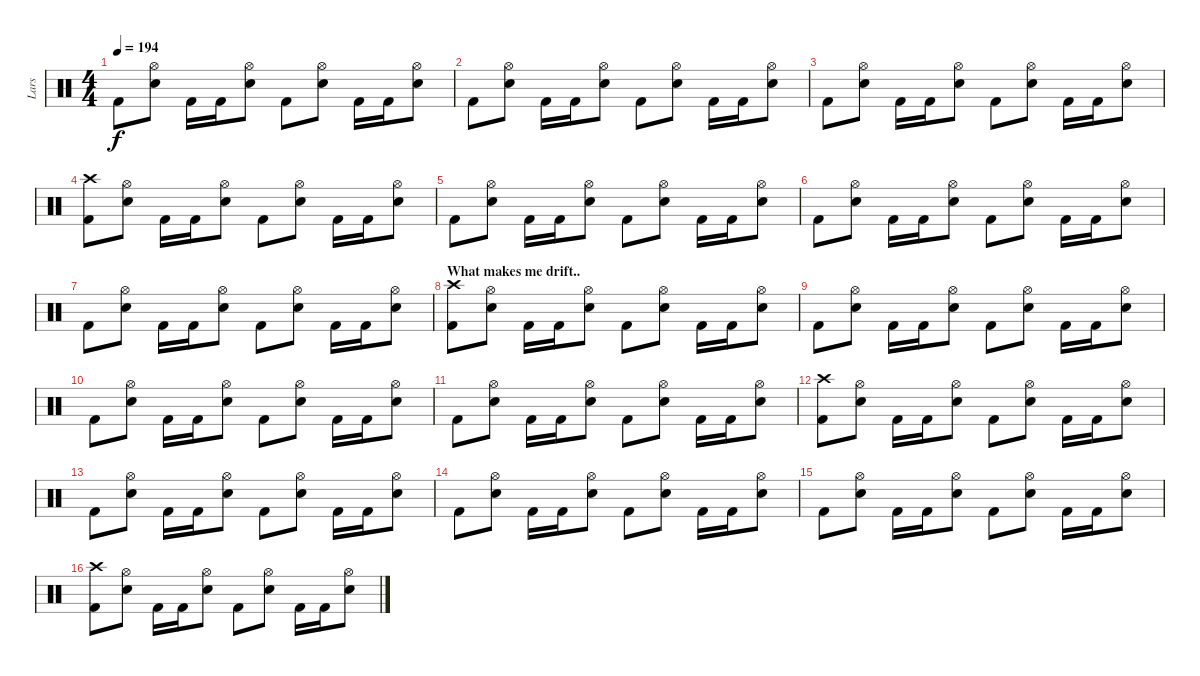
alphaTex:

\track ("Lars" "Lars") {instrument percussion}
\staff {score}
\articulation defaults
\ts (4 4)
\tempo 194
\clef neutral
\ks c "Kick (hit) 2".8{dy f}
("Electric Snare (hit)" "Hi-Hat (open)").8 "Kick (hit) 2".16 "Kick (hit) 2".16 ("Electric Snare (hit)" "Hi-Hat (open)").8 "Kick (hit) 2".8 ("Electric Snare (hit)" "Hi-Hat (open)").8 "Kick (hit) 2".16 "Kick (hit) 2".16 ("Electric Snare (hit)" "Hi-Hat (open)").8 |
"Kick (hit) 2".8 ("Electric Snare (hit)" "Hi-Hat (open)").8 "Kick (hit) 2".16 "Kick (hit) 2".16 ("Electric Snare (hit)" "Hi-Hat (open)").8 "Kick (hit) 2".8 ("Electric Snare (hit)" "Hi-Hat (open)").8 "Kick (hit) 2".16 "Kick (hit) 2".16 ("Electric Snare (hit)" "Hi-Hat (open)").8 |
"Kick (hit) 2".8 ("Electric Snare (hit)" "Hi-Hat (open)").8 "Kick (hit) 2".16 "Kick (hit) 2".16 ("Electric Snare (hit)" "Hi-Hat (open)").8 "Kick (hit) 2".8 ("Electric Snare (hit)" "Hi-Hat (open)").8 "Kick (hit) 2".16 "Kick (hit) 2".16 ("Electric Snare (hit)" "Hi-Hat (open)").8 |
("Kick (hit) 2" "Crash high (hit)").8 ("Electric Snare (hit)" "Hi-Hat (open)").8 "Kick (hit) 2".16 "Kick (hit) 2".16 ("Electric Snare (hit)" "Hi-Hat (open)").8 "Kick (hit) 2".8 ("Electric Snare (hit)" "Hi-Hat (open)").8 "Kick (hit) 2".16 "Kick (hit) 2".16 ("Electric Snare (hit)" "Hi-Hat (open)").8 |
"Kick (hit) 2".8 ("Electric Snare (hit)" "Hi-Hat (open)").8 "Kick (hit) 2".16 "Kick (hit) 2".16 ("Electric Snare (hit)" "Hi-Hat (open)").8 "Kick (hit) 2".8 ("Electric Snare (hit)" "Hi-Hat (open)").8 "Kick (hit) 2".16 "Kick (hit) 2".16 ("Electric Snare (hit)" "Hi-Hat (open)").8 |
"Kick (hit) 2".8 ("Electric Snare (hit)" "Hi-Hat (open)").8 "Kick (hit) 2".16 "Kick (hit) 2".16 ("Electric Snare (hit)" "Hi-Hat (open)").8 "Kick (hit) 2".8 ("Electric Snare (hit)" "Hi-Hat (open)").8 "Kick (hit) 2".16 "Kick (hit) 2".16 ("Electric Snare (hit)" "Hi-Hat (open)").8 |
"Kick (hit) 2".8 ("Electric Snare (hit)" "Hi-Hat (open)").8 "Kick (hit) 2".16 "Kick (hit) 2".16 ("Electric Snare (hit)" "Hi-Hat (open)").8 "Kick (hit) 2".8 ("Electric Snare (hit)" "Hi-Hat (open)").8 "Kick (hit) 2".16 "Kick (hit) 2".16 ("Electric Snare (hit)" "Hi-Hat (open)").8 |
\section ("" "What makes me drift..")
("Kick (hit) 2" "Crash high (hit)").8 ("Electric Snare (hit)" "Hi-Hat (open)").8 "Kick (hit) 2".16 "Kick (hit) 2".16 ("Electric Snare (hit)" "Hi-Hat (open)").8 "Kick (hit) 2".8 ("Electric Snare (hit)" "Hi-Hat (open)").8 "Kick (hit) 2".16 "Kick (hit) 2".16 ("Electric Snare (hit)" "Hi-Hat (open)").8 |
"Kick (hit) 2".8 ("Electric Snare (hit)" "Hi-Hat (open)").8 "Kick (hit) 2".16 "Kick (hit) 2".16 ("Electric Snare (hit)" "Hi-Hat (open)").8 "Kick (hit) 2".8 ("Electric Snare (hit)" "Hi-Hat (open)").8 "Kick (hit) 2".16 "Kick (hit) 2".16 ("Electric Snare (hit)" "Hi-Hat (open)").8 |
"Kick (hit) 2".8 ("Electric Snare (hit)" "Hi-Hat (open)").8 "Kick (hit) 2".16 "Kick (hit) 2".16 ("Electric Snare (hit)" "Hi-Hat (open)").8 "Kick (hit) 2".8 ("Electric Snare (hit)" "Hi-Hat (open)").8 "Kick (hit) 2".16 "Kick (hit) 2".16 ("Electric Snare (hit)" "Hi-Hat (open)").8 |
"Kick (hit) 2".8 ("Electric Snare (hit)" "Hi-Hat (open)").8 "Kick (hit) 2".16 "Kick (hit) 2".16 ("Electric Snare (hit)" "Hi-Hat (open)").8 "Kick (hit) 2".8 ("Electric Snare (hit)" "Hi-Hat (open)").8 "Kick (hit) 2".16 "Kick (hit) 2".16 ("Electric Snare (hit)" "Hi-Hat (open)").8 |
("Kick (hit) 2" "Crash high (hit)").8 ("Electric Snare (hit)" "Hi-Hat (open)").8 "Kick (hit) 2".16 "Kick (hit) 2".16 ("Electric Snare (hit)" "Hi-Hat (open)").8 "Kick (hit) 2".8 ("Electric Snare (hit)" "Hi-Hat (open)").8 "Kick (hit) 2".16 "Kick (hit) 2".16 ("Electric Snare (hit)" "Hi-Hat (open)").8 |
"Kick (hit) 2".8 ("Electric Snare (hit)" "Hi-Hat (open)").8 "Kick (hit) 2".16 "Kick (hit) 2".16 ("Electric Snare (hit)" "Hi-Hat (open)").8 "Kick (hit) 2".8 ("Electric Snare (hit)" "Hi-Hat (open)").8 "Kick (hit) 2".16 "Kick (hit) 2".16 ("Electric Snare (hit)" "Hi-Hat (open)").8 |
"Kick (hit) 2".8 ("Electric Snare (hit)" "Hi-Hat (open)").8 "Kick (hit) 2".16 "Kick (hit) 2".16 ("Electric Snare (hit)" "Hi-Hat (open)").8 "Kick (hit) 2".8 ("Electric Snare (hit)" "Hi-Hat (open)").8 "Kick (hit) 2".16 "Kick (hit) 2".16 ("Electric Snare (hit)" "Hi-Hat (open)").8 |
"Kick (hit) 2".8 ("Electric Snare (hit)" "Hi-Hat (open)").8 "Kick (hit) 2".16 "Kick (hit) 2".16 ("Electric Snare (hit)" "Hi-Hat (open)").8 "Kick (hit) 2".8 ("Electric Snare (hit)" "Hi-Hat (open)").8 "Kick (hit) 2".16 "Kick (hit) 2".16 ("Electric Snare (hit)" "Hi-Hat (open)").8 |
\section ("" "")
("Kick (hit) 2" "Crash high (hit)").8 ("Electric Snare (hit)" "Hi-Hat (open)").8 "Kick (hit) 2".16 "Kick (hit) 2".16 ("Electric Snare (hit)" "Hi-Hat (open)").8 "Kick (hit) 2".8 ("Electric Snare (hit)" "Hi-Hat (open)").8 "Kick (hit) 2".16 "Kick (hit) 2".16 ("Electric Snare (hit)" "Hi-Hat (open)").8
